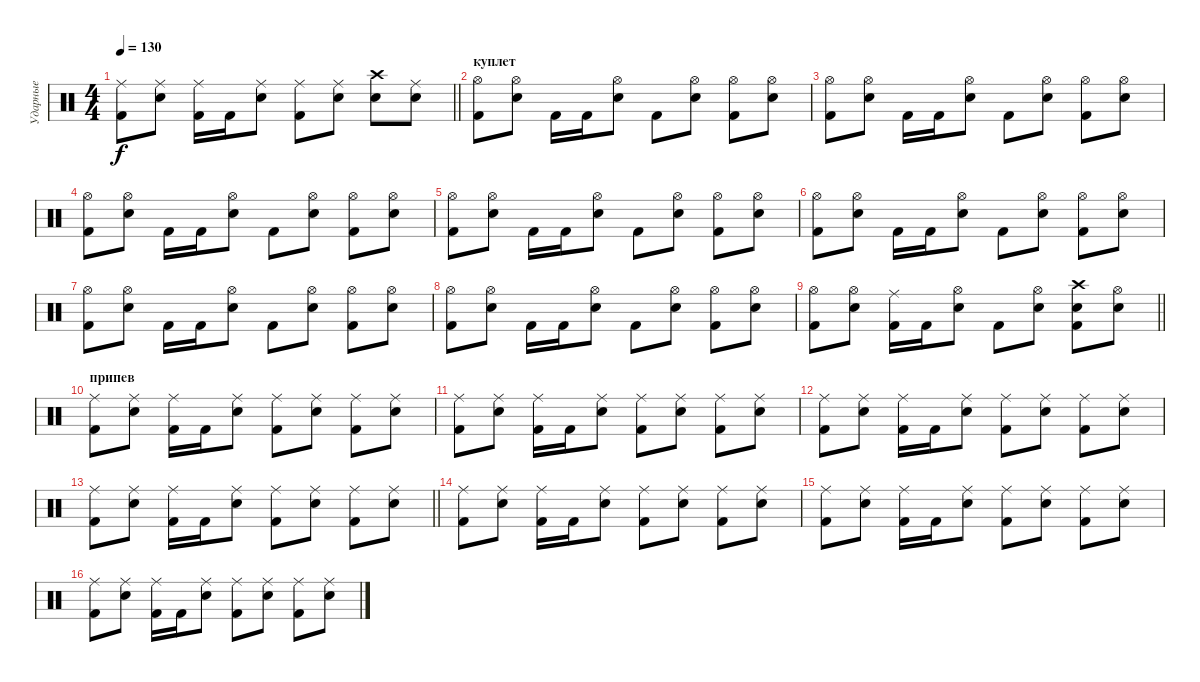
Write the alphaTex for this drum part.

\track ("Ударные" "Ударные") {instrument percussion}
\staff {score}
\articulation defaults
\ts (4 4)
\tempo 130
\clef neutral
\barLineRight lightlight
\ks c
("Kick (hit) 2" "Ride (middle)").8{dy f} ("Electric Snare (hit)" "Ride (middle)").8 ("Kick (hit) 2" "Ride (middle)").16 "Kick (hit) 2".16 ("Electric Snare (hit)" "Ride (middle)").8 ("Kick (hit) 2" "Ride (middle)").8 ("Electric Snare (hit)" "Ride (middle)").8 ("Electric Snare (hit)" "Crash high (hit)").8 ("Electric Snare (hit)" "Ride (middle)").8 |
\section ("" "куплет")
("Kick (hit) 2" "Hi-Hat (open)").8 ("Electric Snare (hit)" "Hi-Hat (open)").8 "Kick (hit) 2".16 "Kick (hit) 2".16 ("Electric Snare (hit)" "Hi-Hat (open)").8 "Kick (hit) 2".8 ("Electric Snare (hit)" "Hi-Hat (open)").8 ("Kick (hit) 2" "Hi-Hat (open)").8 ("Electric Snare (hit)" "Hi-Hat (open)").8 |
("Kick (hit) 2" "Hi-Hat (open)").8 ("Electric Snare (hit)" "Hi-Hat (open)").8 "Kick (hit) 2".16 "Kick (hit) 2".16 ("Electric Snare (hit)" "Hi-Hat (open)").8 "Kick (hit) 2".8 ("Electric Snare (hit)" "Hi-Hat (open)").8 ("Kick (hit) 2" "Hi-Hat (open)").8 ("Electric Snare (hit)" "Hi-Hat (open)").8 |
("Kick (hit) 2" "Hi-Hat (open)").8 ("Electric Snare (hit)" "Hi-Hat (open)").8 "Kick (hit) 2".16 "Kick (hit) 2".16 ("Electric Snare (hit)" "Hi-Hat (open)").8 "Kick (hit) 2".8 ("Electric Snare (hit)" "Hi-Hat (open)").8 ("Kick (hit) 2" "Hi-Hat (open)").8 ("Electric Snare (hit)" "Hi-Hat (open)").8 |
("Kick (hit) 2" "Hi-Hat (open)").8 ("Electric Snare (hit)" "Hi-Hat (open)").8 "Kick (hit) 2".16 "Kick (hit) 2".16 ("Electric Snare (hit)" "Hi-Hat (open)").8 "Kick (hit) 2".8 ("Electric Snare (hit)" "Hi-Hat (open)").8 ("Kick (hit) 2" "Hi-Hat (open)").8 ("Electric Snare (hit)" "Hi-Hat (open)").8 |
("Kick (hit) 2" "Hi-Hat (open)").8 ("Electric Snare (hit)" "Hi-Hat (open)").8 "Kick (hit) 2".16 "Kick (hit) 2".16 ("Electric Snare (hit)" "Hi-Hat (open)").8 "Kick (hit) 2".8 ("Electric Snare (hit)" "Hi-Hat (open)").8 ("Kick (hit) 2" "Hi-Hat (open)").8 ("Electric Snare (hit)" "Hi-Hat (open)").8 |
("Kick (hit) 2" "Hi-Hat (open)").8 ("Electric Snare (hit)" "Hi-Hat (open)").8 "Kick (hit) 2".16 "Kick (hit) 2".16 ("Electric Snare (hit)" "Hi-Hat (open)").8 "Kick (hit) 2".8 ("Electric Snare (hit)" "Hi-Hat (open)").8 ("Kick (hit) 2" "Hi-Hat (open)").8 ("Electric Snare (hit)" "Hi-Hat (open)").8 |
("Kick (hit) 2" "Hi-Hat (open)").8 ("Electric Snare (hit)" "Hi-Hat (open)").8 "Kick (hit) 2".16 "Kick (hit) 2".16 ("Electric Snare (hit)" "Hi-Hat (open)").8 "Kick (hit) 2".8 ("Electric Snare (hit)" "Hi-Hat (open)").8 ("Kick (hit) 2" "Hi-Hat (open)").8 ("Electric Snare (hit)" "Hi-Hat (open)").8 |
\barLineRight lightlight
("Kick (hit) 2" "Hi-Hat (open)").8 ("Electric Snare (hit)" "Hi-Hat (open)").8 ("Kick (hit) 2" "Ride (middle)").16 "Kick (hit) 2".16 ("Electric Snare (hit)" "Hi-Hat (open)").8 "Kick (hit) 2".8 ("Electric Snare (hit)" "Hi-Hat (open)").8 ("Kick (hit) 2" "Crash high (hit)" "Electric Snare (hit)").8 ("Electric Snare (hit)" "Hi-Hat (open)").8 |
\section ("" "припев")
("Kick (hit) 2" "Ride (middle)").8 ("Electric Snare (hit)" "Ride (middle)").8 ("Kick (hit) 2" "Ride (middle)").16 "Kick (hit) 2".16 ("Electric Snare (hit)" "Ride (middle)").8 ("Kick (hit) 2" "Ride (middle)").8 ("Electric Snare (hit)" "Ride (middle)").8 ("Kick (hit) 2" "Ride (middle)").8 ("Electric Snare (hit)" "Ride (middle)").8 |
("Kick (hit) 2" "Ride (middle)").8 ("Electric Snare (hit)" "Ride (middle)").8 ("Kick (hit) 2" "Ride (middle)").16 "Kick (hit) 2".16 ("Electric Snare (hit)" "Ride (middle)").8 ("Kick (hit) 2" "Ride (middle)").8 ("Electric Snare (hit)" "Ride (middle)").8 ("Kick (hit) 2" "Ride (middle)").8 ("Electric Snare (hit)" "Ride (middle)").8 |
("Kick (hit) 2" "Ride (middle)").8 ("Electric Snare (hit)" "Ride (middle)").8 ("Kick (hit) 2" "Ride (middle)").16 "Kick (hit) 2".16 ("Electric Snare (hit)" "Ride (middle)").8 ("Kick (hit) 2" "Ride (middle)").8 ("Electric Snare (hit)" "Ride (middle)").8 ("Kick (hit) 2" "Ride (middle)").8 ("Electric Snare (hit)" "Ride (middle)").8 |
\barLineRight lightlight
("Kick (hit) 2" "Ride (middle)").8 ("Electric Snare (hit)" "Ride (middle)").8 ("Kick (hit) 2" "Ride (middle)").16 "Kick (hit) 2".16 ("Electric Snare (hit)" "Ride (middle)").8 ("Kick (hit) 2" "Ride (middle)").8 ("Electric Snare (hit)" "Ride (middle)").8 ("Kick (hit) 2" "Ride (middle)").8 ("Electric Snare (hit)" "Ride (middle)").8 |
("Kick (hit) 2" "Ride (middle)").8 ("Electric Snare (hit)" "Ride (middle)").8 ("Kick (hit) 2" "Ride (middle)").16 "Kick (hit) 2".16 ("Electric Snare (hit)" "Ride (middle)").8 ("Kick (hit) 2" "Ride (middle)").8 ("Electric Snare (hit)" "Ride (middle)").8 ("Kick (hit) 2" "Ride (middle)").8 ("Electric Snare (hit)" "Ride (middle)").8 |
("Kick (hit) 2" "Ride (middle)").8 ("Electric Snare (hit)" "Ride (middle)").8 ("Kick (hit) 2" "Ride (middle)").16 "Kick (hit) 2".16 ("Electric Snare (hit)" "Ride (middle)").8 ("Kick (hit) 2" "Ride (middle)").8 ("Electric Snare (hit)" "Ride (middle)").8 ("Kick (hit) 2" "Ride (middle)").8 ("Electric Snare (hit)" "Ride (middle)").8 |
("Kick (hit) 2" "Ride (middle)").8 ("Electric Snare (hit)" "Ride (middle)").8 ("Kick (hit) 2" "Ride (middle)").16 "Kick (hit) 2".16 ("Electric Snare (hit)" "Ride (middle)").8 ("Kick (hit) 2" "Ride (middle)").8 ("Electric Snare (hit)" "Ride (middle)").8 ("Kick (hit) 2" "Ride (middle)").8 ("Electric Snare (hit)" "Ride (middle)").8
